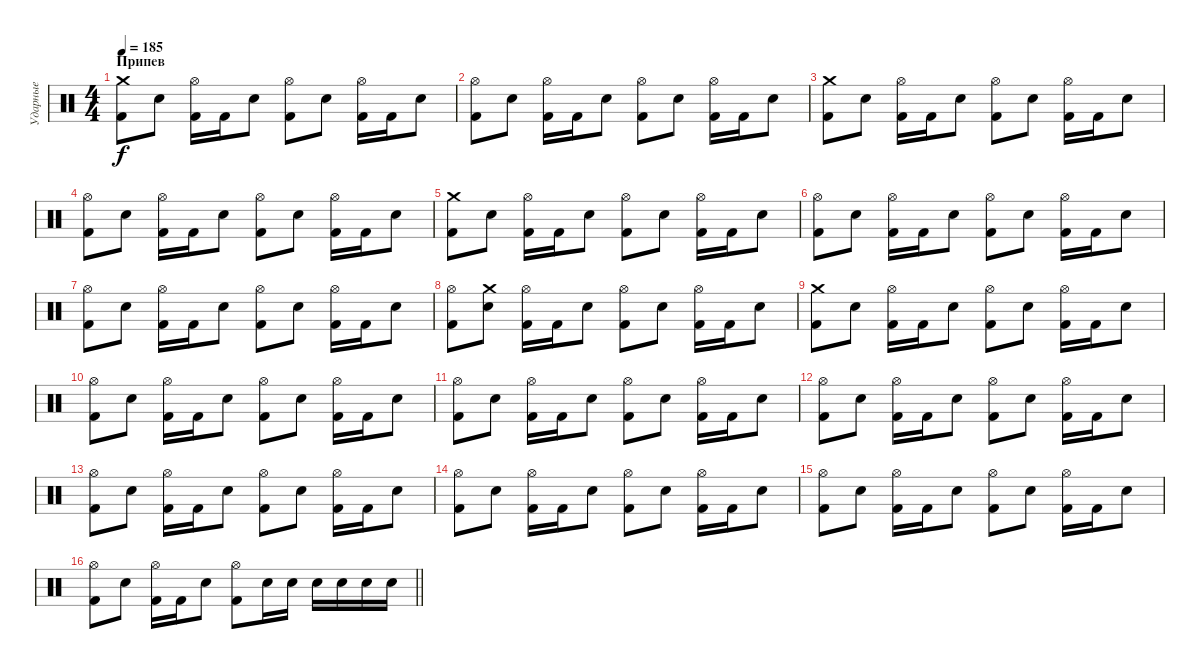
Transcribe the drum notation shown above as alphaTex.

\track ("Ударные" "Ударные") {instrument percussion}
\staff {score}
\articulation defaults
\ts (4 4)
\section ("" "Припев")
\tempo 185
\clef neutral
\ks c
("Crash medium (hit)" "Kick (hit) 2").8{dy f} "Electric Snare (hit)".8 ("Hi-Hat (open)" "Kick (hit) 2").16 "Kick (hit) 2".16 "Electric Snare (hit)".8 ("Hi-Hat (open)" "Kick (hit) 2").8 "Electric Snare (hit)".8 ("Hi-Hat (open)" "Kick (hit) 2").16 "Kick (hit) 2".16 "Electric Snare (hit)".8 |
("Hi-Hat (open)" "Kick (hit) 2").8 "Electric Snare (hit)".8 ("Hi-Hat (open)" "Kick (hit) 2").16 "Kick (hit) 2".16 "Electric Snare (hit)".8 ("Hi-Hat (open)" "Kick (hit) 2").8 "Electric Snare (hit)".8 ("Hi-Hat (open)" "Kick (hit) 2").16 "Kick (hit) 2".16 "Electric Snare (hit)".8 |
("Crash medium (hit)" "Kick (hit) 2").8 "Electric Snare (hit)".8 ("Hi-Hat (open)" "Kick (hit) 2").16 "Kick (hit) 2".16 "Electric Snare (hit)".8 ("Hi-Hat (open)" "Kick (hit) 2").8 "Electric Snare (hit)".8 ("Hi-Hat (open)" "Kick (hit) 2").16 "Kick (hit) 2".16 "Electric Snare (hit)".8 |
("Hi-Hat (open)" "Kick (hit) 2").8 "Electric Snare (hit)".8 ("Hi-Hat (open)" "Kick (hit) 2").16 "Kick (hit) 2".16 "Electric Snare (hit)".8 ("Hi-Hat (open)" "Kick (hit) 2").8 "Electric Snare (hit)".8 ("Hi-Hat (open)" "Kick (hit) 2").16 "Kick (hit) 2".16 "Electric Snare (hit)".8 |
("Crash medium (hit)" "Kick (hit) 2").8 "Electric Snare (hit)".8 ("Hi-Hat (open)" "Kick (hit) 2").16 "Kick (hit) 2".16 "Electric Snare (hit)".8 ("Hi-Hat (open)" "Kick (hit) 2").8 "Electric Snare (hit)".8 ("Hi-Hat (open)" "Kick (hit) 2").16 "Kick (hit) 2".16 "Electric Snare (hit)".8 |
("Hi-Hat (open)" "Kick (hit) 2").8 "Electric Snare (hit)".8 ("Hi-Hat (open)" "Kick (hit) 2").16 "Kick (hit) 2".16 "Electric Snare (hit)".8 ("Hi-Hat (open)" "Kick (hit) 2").8 "Electric Snare (hit)".8 ("Hi-Hat (open)" "Kick (hit) 2").16 "Kick (hit) 2".16 "Electric Snare (hit)".8 |
("Hi-Hat (open)" "Kick (hit) 2").8 "Electric Snare (hit)".8 ("Hi-Hat (open)" "Kick (hit) 2").16 "Kick (hit) 2".16 "Electric Snare (hit)".8 ("Hi-Hat (open)" "Kick (hit) 2").8 "Electric Snare (hit)".8 ("Hi-Hat (open)" "Kick (hit) 2").16 "Kick (hit) 2".16 "Electric Snare (hit)".8 |
("Hi-Hat (open)" "Kick (hit) 2").8 ("Crash medium (hit)" "Electric Snare (hit)").8 ("Hi-Hat (open)" "Kick (hit) 2").16 "Kick (hit) 2".16 "Electric Snare (hit)".8 ("Hi-Hat (open)" "Kick (hit) 2").8 "Electric Snare (hit)".8 ("Hi-Hat (open)" "Kick (hit) 2").16 "Kick (hit) 2".16 "Electric Snare (hit)".8 |
("Crash medium (hit)" "Kick (hit) 2").8 "Electric Snare (hit)".8 ("Hi-Hat (open)" "Kick (hit) 2").16 "Kick (hit) 2".16 "Electric Snare (hit)".8 ("Hi-Hat (open)" "Kick (hit) 2").8 "Electric Snare (hit)".8 ("Hi-Hat (open)" "Kick (hit) 2").16 "Kick (hit) 2".16 "Electric Snare (hit)".8 |
("Hi-Hat (open)" "Kick (hit) 2").8 "Electric Snare (hit)".8 ("Hi-Hat (open)" "Kick (hit) 2").16 "Kick (hit) 2".16 "Electric Snare (hit)".8 ("Hi-Hat (open)" "Kick (hit) 2").8 "Electric Snare (hit)".8 ("Hi-Hat (open)" "Kick (hit) 2").16 "Kick (hit) 2".16 "Electric Snare (hit)".8 |
("Hi-Hat (open)" "Kick (hit) 2").8 "Electric Snare (hit)".8 ("Hi-Hat (open)" "Kick (hit) 2").16 "Kick (hit) 2".16 "Electric Snare (hit)".8 ("Hi-Hat (open)" "Kick (hit) 2").8 "Electric Snare (hit)".8 ("Hi-Hat (open)" "Kick (hit) 2").16 "Kick (hit) 2".16 "Electric Snare (hit)".8 |
("Hi-Hat (open)" "Kick (hit) 2").8 "Electric Snare (hit)".8 ("Hi-Hat (open)" "Kick (hit) 2").16 "Kick (hit) 2".16 "Electric Snare (hit)".8 ("Hi-Hat (open)" "Kick (hit) 2").8 "Electric Snare (hit)".8 ("Hi-Hat (open)" "Kick (hit) 2").16 "Kick (hit) 2".16 "Electric Snare (hit)".8 |
("Hi-Hat (open)" "Kick (hit) 2").8 "Electric Snare (hit)".8 ("Hi-Hat (open)" "Kick (hit) 2").16 "Kick (hit) 2".16 "Electric Snare (hit)".8 ("Hi-Hat (open)" "Kick (hit) 2").8 "Electric Snare (hit)".8 ("Hi-Hat (open)" "Kick (hit) 2").16 "Kick (hit) 2".16 "Electric Snare (hit)".8 |
("Hi-Hat (open)" "Kick (hit) 2").8 "Electric Snare (hit)".8 ("Hi-Hat (open)" "Kick (hit) 2").16 "Kick (hit) 2".16 "Electric Snare (hit)".8 ("Hi-Hat (open)" "Kick (hit) 2").8 "Electric Snare (hit)".8 ("Hi-Hat (open)" "Kick (hit) 2").16 "Kick (hit) 2".16 "Electric Snare (hit)".8 |
("Hi-Hat (open)" "Kick (hit) 2").8 "Electric Snare (hit)".8 ("Hi-Hat (open)" "Kick (hit) 2").16 "Kick (hit) 2".16 "Electric Snare (hit)".8 ("Hi-Hat (open)" "Kick (hit) 2").8 "Electric Snare (hit)".8 ("Hi-Hat (open)" "Kick (hit) 2").16 "Kick (hit) 2".16 "Electric Snare (hit)".8 |
\barLineRight lightlight
("Hi-Hat (open)" "Kick (hit) 2").8 "Electric Snare (hit)".8 ("Hi-Hat (open)" "Kick (hit) 2").16 "Kick (hit) 2".16 "Electric Snare (hit)".8 ("Hi-Hat (open)" "Kick (hit) 2").8 "Electric Snare (hit)".16 "Electric Snare (hit)".16 "Electric Snare (hit)".16 "Electric Snare (hit)".16 "Electric Snare (hit)".16 "Electric Snare (hit)".16
